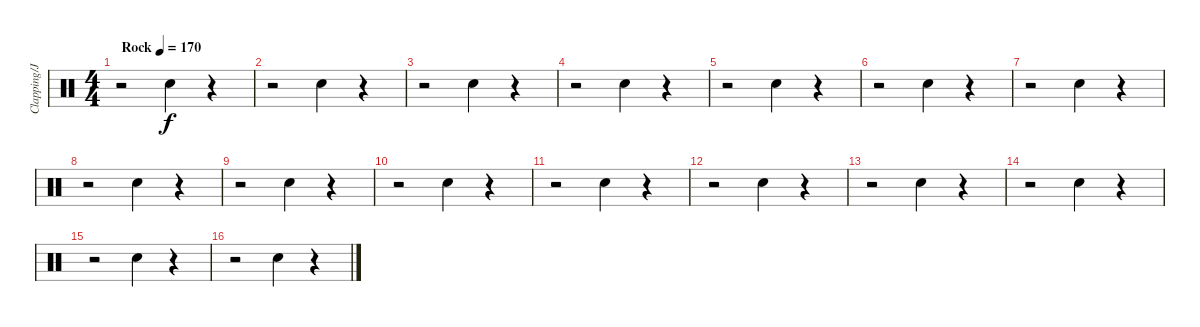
\track ("Clapping/Jay-Z (snare)" "Clapping/J") {instrument percussion}
\staff {score}
\articulation defaults
\ts (4 4)
\tempo (170 "Rock")
\clef neutral
\ks c
r.2{dy f} "Hand Clap (hit)".4 r.4 |
r.2 "Hand Clap (hit)".4 r.4 |
r.2 "Hand Clap (hit)".4 r.4 |
r.2 "Hand Clap (hit)".4 r.4 |
r.2 "Hand Clap (hit)".4 r.4 |
r.2 "Hand Clap (hit)".4 r.4 |
r.2 "Hand Clap (hit)".4 r.4 |
r.2 "Hand Clap (hit)".4 r.4 |
r.2 "Hand Clap (hit)".4 r.4 |
r.2 "Hand Clap (hit)".4 r.4 |
r.2 "Hand Clap (hit)".4 r.4 |
r.2 "Hand Clap (hit)".4 r.4 |
r.2 "Hand Clap (hit)".4 r.4 |
r.2 "Hand Clap (hit)".4 r.4 |
r.2 "Hand Clap (hit)".4 r.4 |
r.2 "Hand Clap (hit)".4 r.4
